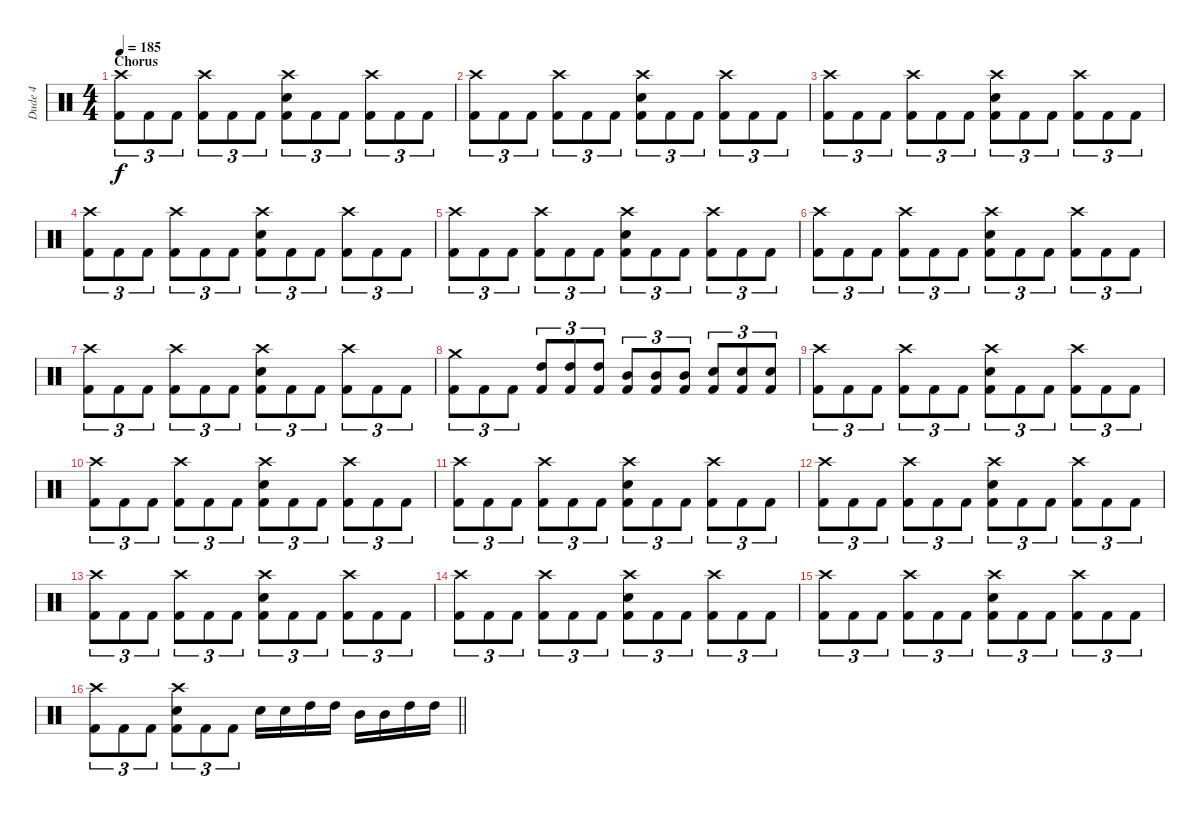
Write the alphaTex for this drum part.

\track ("Dude 4" "Dude 4") {instrument percussion}
\staff {score}
\articulation defaults
\ts (4 4)
\section ("" "Chorus")
\tempo 185
\clef neutral
\ks c
("Crash high (hit)" "Kick (hit) 2").8{tu (3 2) dy f} "Kick (hit) 2".8{tu (3 2)} "Kick (hit) 2".8{tu (3 2)} ("Crash high (hit)" "Kick (hit) 2").8{tu (3 2)} "Kick (hit) 2".8{tu (3 2)} "Kick (hit) 2".8{tu (3 2)} ("Crash high (hit)" "Electric Snare (hit)" "Kick (hit) 2").8{tu (3 2)} "Kick (hit) 2".8{tu (3 2)} "Kick (hit) 2".8{tu (3 2)} ("Crash high (hit)" "Kick (hit) 2").8{tu (3 2)} "Kick (hit) 2".8{tu (3 2)} "Kick (hit) 2".8{tu (3 2)} |
("Crash high (hit)" "Kick (hit) 2").8{tu (3 2)} "Kick (hit) 2".8{tu (3 2)} "Kick (hit) 2".8{tu (3 2)} ("Crash high (hit)" "Kick (hit) 2").8{tu (3 2)} "Kick (hit) 2".8{tu (3 2)} "Kick (hit) 2".8{tu (3 2)} ("Crash high (hit)" "Electric Snare (hit)" "Kick (hit) 2").8{tu (3 2)} "Kick (hit) 2".8{tu (3 2)} "Kick (hit) 2".8{tu (3 2)} ("Crash high (hit)" "Kick (hit) 2").8{tu (3 2)} "Kick (hit) 2".8{tu (3 2)} "Kick (hit) 2".8{tu (3 2)} |
("Crash high (hit)" "Kick (hit) 2").8{tu (3 2)} "Kick (hit) 2".8{tu (3 2)} "Kick (hit) 2".8{tu (3 2)} ("Crash high (hit)" "Kick (hit) 2").8{tu (3 2)} "Kick (hit) 2".8{tu (3 2)} "Kick (hit) 2".8{tu (3 2)} ("Crash high (hit)" "Electric Snare (hit)" "Kick (hit) 2").8{tu (3 2)} "Kick (hit) 2".8{tu (3 2)} "Kick (hit) 2".8{tu (3 2)} ("Crash high (hit)" "Kick (hit) 2").8{tu (3 2)} "Kick (hit) 2".8{tu (3 2)} "Kick (hit) 2".8{tu (3 2)} |
("Crash high (hit)" "Kick (hit) 2").8{tu (3 2)} "Kick (hit) 2".8{tu (3 2)} "Kick (hit) 2".8{tu (3 2)} ("Crash high (hit)" "Kick (hit) 2").8{tu (3 2)} "Kick (hit) 2".8{tu (3 2)} "Kick (hit) 2".8{tu (3 2)} ("Crash high (hit)" "Electric Snare (hit)" "Kick (hit) 2").8{tu (3 2)} "Kick (hit) 2".8{tu (3 2)} "Kick (hit) 2".8{tu (3 2)} ("Crash high (hit)" "Kick (hit) 2").8{tu (3 2)} "Kick (hit) 2".8{tu (3 2)} "Kick (hit) 2".8{tu (3 2)} |
("Crash high (hit)" "Kick (hit) 2").8{tu (3 2)} "Kick (hit) 2".8{tu (3 2)} "Kick (hit) 2".8{tu (3 2)} ("Crash high (hit)" "Kick (hit) 2").8{tu (3 2)} "Kick (hit) 2".8{tu (3 2)} "Kick (hit) 2".8{tu (3 2)} ("Crash high (hit)" "Electric Snare (hit)" "Kick (hit) 2").8{tu (3 2)} "Kick (hit) 2".8{tu (3 2)} "Kick (hit) 2".8{tu (3 2)} ("Crash high (hit)" "Kick (hit) 2").8{tu (3 2)} "Kick (hit) 2".8{tu (3 2)} "Kick (hit) 2".8{tu (3 2)} |
("Crash high (hit)" "Kick (hit) 2").8{tu (3 2)} "Kick (hit) 2".8{tu (3 2)} "Kick (hit) 2".8{tu (3 2)} ("Crash high (hit)" "Kick (hit) 2").8{tu (3 2)} "Kick (hit) 2".8{tu (3 2)} "Kick (hit) 2".8{tu (3 2)} ("Crash high (hit)" "Electric Snare (hit)" "Kick (hit) 2").8{tu (3 2)} "Kick (hit) 2".8{tu (3 2)} "Kick (hit) 2".8{tu (3 2)} ("Crash high (hit)" "Kick (hit) 2").8{tu (3 2)} "Kick (hit) 2".8{tu (3 2)} "Kick (hit) 2".8{tu (3 2)} |
("Crash high (hit)" "Kick (hit) 2").8{tu (3 2)} "Kick (hit) 2".8{tu (3 2)} "Kick (hit) 2".8{tu (3 2)} ("Crash high (hit)" "Kick (hit) 2").8{tu (3 2)} "Kick (hit) 2".8{tu (3 2)} "Kick (hit) 2".8{tu (3 2)} ("Crash high (hit)" "Electric Snare (hit)" "Kick (hit) 2").8{tu (3 2)} "Kick (hit) 2".8{tu (3 2)} "Kick (hit) 2".8{tu (3 2)} ("Crash high (hit)" "Kick (hit) 2").8{tu (3 2)} "Kick (hit) 2".8{tu (3 2)} "Kick (hit) 2".8{tu (3 2)} |
("Crash medium (hit)" "Kick (hit) 2").8{tu (3 2)} "Kick (hit) 2".8{tu (3 2)} "Kick (hit) 2".8{tu (3 2)} ("High Tom (hit)" "Kick (hit) 2").8{tu (3 2)} ("High Tom (hit)" "Kick (hit) 2").8{tu (3 2)} ("High Tom (hit)" "Kick (hit) 2").8{tu (3 2)} ("Mid Tom (hit)" "Kick (hit) 2").8{tu (3 2)} ("Mid Tom (hit)" "Kick (hit) 2").8{tu (3 2)} ("Mid Tom (hit)" "Kick (hit) 2").8{tu (3 2)} ("Electric Snare (hit)" "Kick (hit) 2").8{tu (3 2)} ("Electric Snare (hit)" "Kick (hit) 2").8{tu (3 2)} ("Electric Snare (hit)" "Kick (hit) 2").8{tu (3 2)} |
("Crash high (hit)" "Kick (hit) 2").8{tu (3 2)} "Kick (hit) 2".8{tu (3 2)} "Kick (hit) 2".8{tu (3 2)} ("Crash high (hit)" "Kick (hit) 2").8{tu (3 2)} "Kick (hit) 2".8{tu (3 2)} "Kick (hit) 2".8{tu (3 2)} ("Crash high (hit)" "Electric Snare (hit)" "Kick (hit) 2").8{tu (3 2)} "Kick (hit) 2".8{tu (3 2)} "Kick (hit) 2".8{tu (3 2)} ("Crash high (hit)" "Kick (hit) 2").8{tu (3 2)} "Kick (hit) 2".8{tu (3 2)} "Kick (hit) 2".8{tu (3 2)} |
("Crash high (hit)" "Kick (hit) 2").8{tu (3 2)} "Kick (hit) 2".8{tu (3 2)} "Kick (hit) 2".8{tu (3 2)} ("Crash high (hit)" "Kick (hit) 2").8{tu (3 2)} "Kick (hit) 2".8{tu (3 2)} "Kick (hit) 2".8{tu (3 2)} ("Crash high (hit)" "Electric Snare (hit)" "Kick (hit) 2").8{tu (3 2)} "Kick (hit) 2".8{tu (3 2)} "Kick (hit) 2".8{tu (3 2)} ("Crash high (hit)" "Kick (hit) 2").8{tu (3 2)} "Kick (hit) 2".8{tu (3 2)} "Kick (hit) 2".8{tu (3 2)} |
("Crash high (hit)" "Kick (hit) 2").8{tu (3 2)} "Kick (hit) 2".8{tu (3 2)} "Kick (hit) 2".8{tu (3 2)} ("Crash high (hit)" "Kick (hit) 2").8{tu (3 2)} "Kick (hit) 2".8{tu (3 2)} "Kick (hit) 2".8{tu (3 2)} ("Crash high (hit)" "Electric Snare (hit)" "Kick (hit) 2").8{tu (3 2)} "Kick (hit) 2".8{tu (3 2)} "Kick (hit) 2".8{tu (3 2)} ("Crash high (hit)" "Kick (hit) 2").8{tu (3 2)} "Kick (hit) 2".8{tu (3 2)} "Kick (hit) 2".8{tu (3 2)} |
("Crash high (hit)" "Kick (hit) 2").8{tu (3 2)} "Kick (hit) 2".8{tu (3 2)} "Kick (hit) 2".8{tu (3 2)} ("Crash high (hit)" "Kick (hit) 2").8{tu (3 2)} "Kick (hit) 2".8{tu (3 2)} "Kick (hit) 2".8{tu (3 2)} ("Crash high (hit)" "Electric Snare (hit)" "Kick (hit) 2").8{tu (3 2)} "Kick (hit) 2".8{tu (3 2)} "Kick (hit) 2".8{tu (3 2)} ("Crash high (hit)" "Kick (hit) 2").8{tu (3 2)} "Kick (hit) 2".8{tu (3 2)} "Kick (hit) 2".8{tu (3 2)} |
("Crash high (hit)" "Kick (hit) 2").8{tu (3 2)} "Kick (hit) 2".8{tu (3 2)} "Kick (hit) 2".8{tu (3 2)} ("Crash high (hit)" "Kick (hit) 2").8{tu (3 2)} "Kick (hit) 2".8{tu (3 2)} "Kick (hit) 2".8{tu (3 2)} ("Crash high (hit)" "Electric Snare (hit)" "Kick (hit) 2").8{tu (3 2)} "Kick (hit) 2".8{tu (3 2)} "Kick (hit) 2".8{tu (3 2)} ("Crash high (hit)" "Kick (hit) 2").8{tu (3 2)} "Kick (hit) 2".8{tu (3 2)} "Kick (hit) 2".8{tu (3 2)} |
("Crash high (hit)" "Kick (hit) 2").8{tu (3 2)} "Kick (hit) 2".8{tu (3 2)} "Kick (hit) 2".8{tu (3 2)} ("Crash high (hit)" "Kick (hit) 2").8{tu (3 2)} "Kick (hit) 2".8{tu (3 2)} "Kick (hit) 2".8{tu (3 2)} ("Crash high (hit)" "Electric Snare (hit)" "Kick (hit) 2").8{tu (3 2)} "Kick (hit) 2".8{tu (3 2)} "Kick (hit) 2".8{tu (3 2)} ("Crash high (hit)" "Kick (hit) 2").8{tu (3 2)} "Kick (hit) 2".8{tu (3 2)} "Kick (hit) 2".8{tu (3 2)} |
("Crash high (hit)" "Kick (hit) 2").8{tu (3 2)} "Kick (hit) 2".8{tu (3 2)} "Kick (hit) 2".8{tu (3 2)} ("Crash high (hit)" "Kick (hit) 2").8{tu (3 2)} "Kick (hit) 2".8{tu (3 2)} "Kick (hit) 2".8{tu (3 2)} ("Crash high (hit)" "Electric Snare (hit)" "Kick (hit) 2").8{tu (3 2)} "Kick (hit) 2".8{tu (3 2)} "Kick (hit) 2".8{tu (3 2)} ("Crash high (hit)" "Kick (hit) 2").8{tu (3 2)} "Kick (hit) 2".8{tu (3 2)} "Kick (hit) 2".8{tu (3 2)} |
\barLineRight lightlight
("Crash high (hit)" "Kick (hit) 2").8{tu (3 2)} "Kick (hit) 2".8{tu (3 2)} "Kick (hit) 2".8{tu (3 2)} ("Crash high (hit)" "Electric Snare (hit)" "Kick (hit) 2").8{tu (3 2)} "Kick (hit) 2".8{tu (3 2)} "Kick (hit) 2".8{tu (3 2)} "Electric Snare (hit)".16 "Electric Snare (hit)".16 "High Tom (hit)".16 "High Tom (hit)".16 "Mid Tom (hit)".16 "Mid Tom (hit)".16 "High Tom (hit)".16 "High Tom (hit)".16
